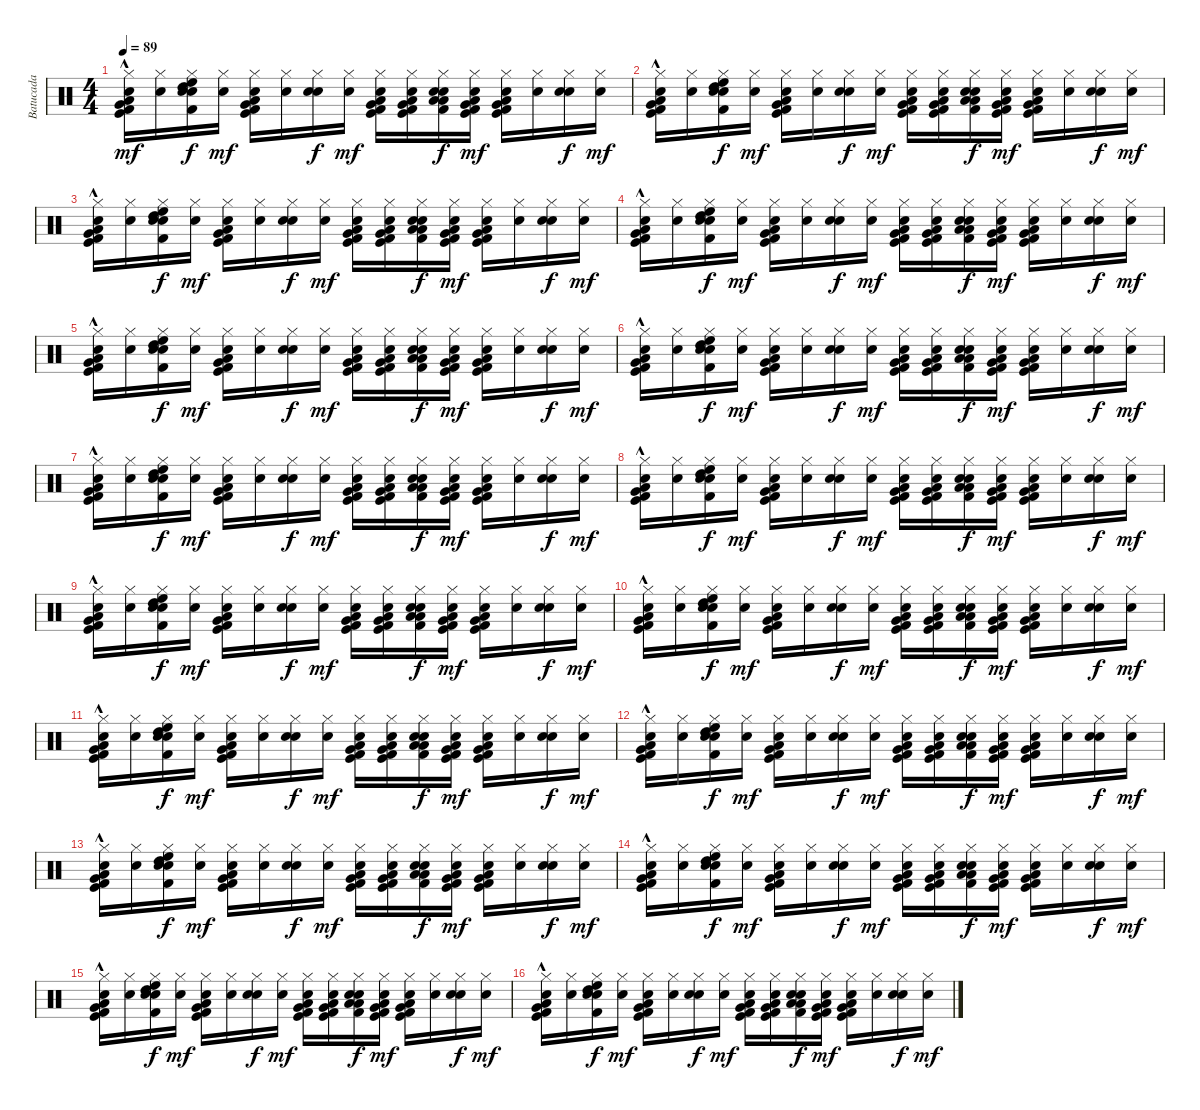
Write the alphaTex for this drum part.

\track ("Batucada" "Batucada") {instrument percussion}
\staff {score}
\articulation defaults
\ts (4 4)
\tempo 89
\clef neutral
\ks c
("Hi-Hat (closed)" "Very Low Tom (hit)" "Low Floor Tom (hit)" "Electric Snare (hit)" "Kick (hit) 2" "Kick (hit)"{hac}).16{dy mf} ("Hi-Hat (closed)" "Electric Snare (hit)").16 ("Hi-Hat (closed)" "High Floor Tom (hit)" "High Tom (hit)" "Electric Snare (hit)" "Snare (hit) 2" "Kick (hit) 2").16{dy f} ("Hi-Hat (closed)" "Electric Snare (hit)").16{dy mf} ("Hi-Hat (closed)" "Very Low Tom (hit)" "Low Floor Tom (hit)" "Electric Snare (hit)" "Kick (hit) 2" "Kick (hit)").16 ("Hi-Hat (closed)" "Electric Snare (hit)").16 ("Hi-Hat (closed)" "Electric Snare (hit)" "Snare (hit) 2").16{dy f} ("Hi-Hat (closed)" "Electric Snare (hit)").16{dy mf} ("Hi-Hat (closed)" "Very Low Tom (hit)" "Low Floor Tom (hit)" "Electric Snare (hit)" "Kick (hit) 2" "Kick (hit)").16 ("Hi-Hat (closed)" "Low Floor Tom (hit)" "Very Low Tom (hit)" "Electric Snare (hit)" "Kick (hit) 2" "Kick (hit)").16 ("Low Tom (hit)" "Low Floor Tom (hit)" "Hi-Hat (closed)" "Electric Snare (hit)" "Snare (hit) 2" "Kick (hit) 2").16{dy f} ("Hi-Hat (closed)" "Very Low Tom (hit)" "Low Floor Tom (hit)" "Electric Snare (hit)" "Kick (hit) 2" "Kick (hit)").16{dy mf} ("Hi-Hat (closed)" "Very Low Tom (hit)" "Low Floor Tom (hit)" "Electric Snare (hit)" "Kick (hit) 2" "Kick (hit)").16 ("Hi-Hat (closed)" "Electric Snare (hit)").16 ("Hi-Hat (closed)" "Electric Snare (hit)" "Snare (hit) 2").16{dy f} ("Hi-Hat (closed)" "Electric Snare (hit)").16{dy mf} |
("Hi-Hat (closed)" "Very Low Tom (hit)" "Low Floor Tom (hit)" "Electric Snare (hit)" "Kick (hit) 2" "Kick (hit)"{hac}).16 ("Hi-Hat (closed)" "Electric Snare (hit)").16 ("Hi-Hat (closed)" "High Floor Tom (hit)" "High Tom (hit)" "Electric Snare (hit)" "Snare (hit) 2" "Kick (hit) 2").16{dy f} ("Hi-Hat (closed)" "Electric Snare (hit)").16{dy mf} ("Hi-Hat (closed)" "Very Low Tom (hit)" "Low Floor Tom (hit)" "Electric Snare (hit)" "Kick (hit) 2" "Kick (hit)").16 ("Hi-Hat (closed)" "Electric Snare (hit)").16 ("Hi-Hat (closed)" "Electric Snare (hit)" "Snare (hit) 2").16{dy f} ("Hi-Hat (closed)" "Electric Snare (hit)").16{dy mf} ("Hi-Hat (closed)" "Very Low Tom (hit)" "Low Floor Tom (hit)" "Electric Snare (hit)" "Kick (hit) 2" "Kick (hit)").16 ("Hi-Hat (closed)" "Low Floor Tom (hit)" "Very Low Tom (hit)" "Electric Snare (hit)" "Kick (hit) 2" "Kick (hit)").16 ("Low Tom (hit)" "Low Floor Tom (hit)" "Hi-Hat (closed)" "Electric Snare (hit)" "Snare (hit) 2" "Kick (hit) 2").16{dy f} ("Hi-Hat (closed)" "Very Low Tom (hit)" "Low Floor Tom (hit)" "Electric Snare (hit)" "Kick (hit) 2" "Kick (hit)").16{dy mf} ("Hi-Hat (closed)" "Very Low Tom (hit)" "Low Floor Tom (hit)" "Electric Snare (hit)" "Kick (hit) 2" "Kick (hit)").16 ("Hi-Hat (closed)" "Electric Snare (hit)").16 ("Hi-Hat (closed)" "Electric Snare (hit)" "Snare (hit) 2").16{dy f} ("Hi-Hat (closed)" "Electric Snare (hit)").16{dy mf} |
("Hi-Hat (closed)" "Very Low Tom (hit)" "Low Floor Tom (hit)" "Electric Snare (hit)" "Kick (hit) 2" "Kick (hit)"{hac}).16 ("Hi-Hat (closed)" "Electric Snare (hit)").16 ("Hi-Hat (closed)" "High Floor Tom (hit)" "High Tom (hit)" "Electric Snare (hit)" "Snare (hit) 2" "Kick (hit) 2").16{dy f} ("Hi-Hat (closed)" "Electric Snare (hit)").16{dy mf} ("Hi-Hat (closed)" "Very Low Tom (hit)" "Low Floor Tom (hit)" "Electric Snare (hit)" "Kick (hit) 2" "Kick (hit)").16 ("Hi-Hat (closed)" "Electric Snare (hit)").16 ("Hi-Hat (closed)" "Electric Snare (hit)" "Snare (hit) 2").16{dy f} ("Hi-Hat (closed)" "Electric Snare (hit)").16{dy mf} ("Hi-Hat (closed)" "Very Low Tom (hit)" "Low Floor Tom (hit)" "Electric Snare (hit)" "Kick (hit) 2" "Kick (hit)").16 ("Hi-Hat (closed)" "Low Floor Tom (hit)" "Very Low Tom (hit)" "Electric Snare (hit)" "Kick (hit) 2" "Kick (hit)").16 ("Low Tom (hit)" "Low Floor Tom (hit)" "Hi-Hat (closed)" "Electric Snare (hit)" "Snare (hit) 2" "Kick (hit) 2").16{dy f} ("Hi-Hat (closed)" "Very Low Tom (hit)" "Low Floor Tom (hit)" "Electric Snare (hit)" "Kick (hit) 2" "Kick (hit)").16{dy mf} ("Hi-Hat (closed)" "Very Low Tom (hit)" "Low Floor Tom (hit)" "Electric Snare (hit)" "Kick (hit) 2" "Kick (hit)").16 ("Hi-Hat (closed)" "Electric Snare (hit)").16 ("Hi-Hat (closed)" "Electric Snare (hit)" "Snare (hit) 2").16{dy f} ("Hi-Hat (closed)" "Electric Snare (hit)").16{dy mf} |
("Hi-Hat (closed)" "Very Low Tom (hit)" "Low Floor Tom (hit)" "Electric Snare (hit)" "Kick (hit) 2" "Kick (hit)"{hac}).16 ("Hi-Hat (closed)" "Electric Snare (hit)").16 ("Hi-Hat (closed)" "High Floor Tom (hit)" "High Tom (hit)" "Electric Snare (hit)" "Snare (hit) 2" "Kick (hit) 2").16{dy f} ("Hi-Hat (closed)" "Electric Snare (hit)").16{dy mf} ("Hi-Hat (closed)" "Very Low Tom (hit)" "Low Floor Tom (hit)" "Electric Snare (hit)" "Kick (hit) 2" "Kick (hit)").16 ("Hi-Hat (closed)" "Electric Snare (hit)").16 ("Hi-Hat (closed)" "Electric Snare (hit)" "Snare (hit) 2").16{dy f} ("Hi-Hat (closed)" "Electric Snare (hit)").16{dy mf} ("Hi-Hat (closed)" "Very Low Tom (hit)" "Low Floor Tom (hit)" "Electric Snare (hit)" "Kick (hit) 2" "Kick (hit)").16 ("Hi-Hat (closed)" "Low Floor Tom (hit)" "Very Low Tom (hit)" "Electric Snare (hit)" "Kick (hit) 2" "Kick (hit)").16 ("Low Tom (hit)" "Low Floor Tom (hit)" "Hi-Hat (closed)" "Electric Snare (hit)" "Snare (hit) 2" "Kick (hit) 2").16{dy f} ("Hi-Hat (closed)" "Very Low Tom (hit)" "Low Floor Tom (hit)" "Electric Snare (hit)" "Kick (hit) 2" "Kick (hit)").16{dy mf} ("Hi-Hat (closed)" "Very Low Tom (hit)" "Low Floor Tom (hit)" "Electric Snare (hit)" "Kick (hit) 2" "Kick (hit)").16 ("Hi-Hat (closed)" "Electric Snare (hit)").16 ("Hi-Hat (closed)" "Electric Snare (hit)" "Snare (hit) 2").16{dy f} ("Hi-Hat (closed)" "Electric Snare (hit)").16{dy mf} |
("Hi-Hat (closed)" "Very Low Tom (hit)" "Low Floor Tom (hit)" "Electric Snare (hit)" "Kick (hit) 2" "Kick (hit)"{hac}).16 ("Hi-Hat (closed)" "Electric Snare (hit)").16 ("Hi-Hat (closed)" "High Floor Tom (hit)" "High Tom (hit)" "Electric Snare (hit)" "Snare (hit) 2" "Kick (hit) 2").16{dy f} ("Hi-Hat (closed)" "Electric Snare (hit)").16{dy mf} ("Hi-Hat (closed)" "Very Low Tom (hit)" "Low Floor Tom (hit)" "Electric Snare (hit)" "Kick (hit) 2" "Kick (hit)").16 ("Hi-Hat (closed)" "Electric Snare (hit)").16 ("Hi-Hat (closed)" "Electric Snare (hit)" "Snare (hit) 2").16{dy f} ("Hi-Hat (closed)" "Electric Snare (hit)").16{dy mf} ("Hi-Hat (closed)" "Very Low Tom (hit)" "Low Floor Tom (hit)" "Electric Snare (hit)" "Kick (hit) 2" "Kick (hit)").16 ("Hi-Hat (closed)" "Low Floor Tom (hit)" "Very Low Tom (hit)" "Electric Snare (hit)" "Kick (hit) 2" "Kick (hit)").16 ("Low Tom (hit)" "Low Floor Tom (hit)" "Hi-Hat (closed)" "Electric Snare (hit)" "Snare (hit) 2" "Kick (hit) 2").16{dy f} ("Hi-Hat (closed)" "Very Low Tom (hit)" "Low Floor Tom (hit)" "Electric Snare (hit)" "Kick (hit) 2" "Kick (hit)").16{dy mf} ("Hi-Hat (closed)" "Very Low Tom (hit)" "Low Floor Tom (hit)" "Electric Snare (hit)" "Kick (hit) 2" "Kick (hit)").16 ("Hi-Hat (closed)" "Electric Snare (hit)").16 ("Hi-Hat (closed)" "Electric Snare (hit)" "Snare (hit) 2").16{dy f} ("Hi-Hat (closed)" "Electric Snare (hit)").16{dy mf} |
("Hi-Hat (closed)" "Very Low Tom (hit)" "Low Floor Tom (hit)" "Electric Snare (hit)" "Kick (hit) 2" "Kick (hit)"{hac}).16 ("Hi-Hat (closed)" "Electric Snare (hit)").16 ("Hi-Hat (closed)" "High Floor Tom (hit)" "High Tom (hit)" "Electric Snare (hit)" "Snare (hit) 2" "Kick (hit) 2").16{dy f} ("Hi-Hat (closed)" "Electric Snare (hit)").16{dy mf} ("Hi-Hat (closed)" "Very Low Tom (hit)" "Low Floor Tom (hit)" "Electric Snare (hit)" "Kick (hit) 2" "Kick (hit)").16 ("Hi-Hat (closed)" "Electric Snare (hit)").16 ("Hi-Hat (closed)" "Electric Snare (hit)" "Snare (hit) 2").16{dy f} ("Hi-Hat (closed)" "Electric Snare (hit)").16{dy mf} ("Hi-Hat (closed)" "Very Low Tom (hit)" "Low Floor Tom (hit)" "Electric Snare (hit)" "Kick (hit) 2" "Kick (hit)").16 ("Hi-Hat (closed)" "Low Floor Tom (hit)" "Very Low Tom (hit)" "Electric Snare (hit)" "Kick (hit) 2" "Kick (hit)").16 ("Low Tom (hit)" "Low Floor Tom (hit)" "Hi-Hat (closed)" "Electric Snare (hit)" "Snare (hit) 2" "Kick (hit) 2").16{dy f} ("Hi-Hat (closed)" "Very Low Tom (hit)" "Low Floor Tom (hit)" "Electric Snare (hit)" "Kick (hit) 2" "Kick (hit)").16{dy mf} ("Hi-Hat (closed)" "Very Low Tom (hit)" "Low Floor Tom (hit)" "Electric Snare (hit)" "Kick (hit) 2" "Kick (hit)").16 ("Hi-Hat (closed)" "Electric Snare (hit)").16 ("Hi-Hat (closed)" "Electric Snare (hit)" "Snare (hit) 2").16{dy f} ("Hi-Hat (closed)" "Electric Snare (hit)").16{dy mf} |
("Hi-Hat (closed)" "Very Low Tom (hit)" "Low Floor Tom (hit)" "Electric Snare (hit)" "Kick (hit) 2" "Kick (hit)"{hac}).16 ("Hi-Hat (closed)" "Electric Snare (hit)").16 ("Hi-Hat (closed)" "High Floor Tom (hit)" "High Tom (hit)" "Electric Snare (hit)" "Snare (hit) 2" "Kick (hit) 2").16{dy f} ("Hi-Hat (closed)" "Electric Snare (hit)").16{dy mf} ("Hi-Hat (closed)" "Very Low Tom (hit)" "Low Floor Tom (hit)" "Electric Snare (hit)" "Kick (hit) 2" "Kick (hit)").16 ("Hi-Hat (closed)" "Electric Snare (hit)").16 ("Hi-Hat (closed)" "Electric Snare (hit)" "Snare (hit) 2").16{dy f} ("Hi-Hat (closed)" "Electric Snare (hit)").16{dy mf} ("Hi-Hat (closed)" "Very Low Tom (hit)" "Low Floor Tom (hit)" "Electric Snare (hit)" "Kick (hit) 2" "Kick (hit)").16 ("Hi-Hat (closed)" "Low Floor Tom (hit)" "Very Low Tom (hit)" "Electric Snare (hit)" "Kick (hit) 2" "Kick (hit)").16 ("Low Tom (hit)" "Low Floor Tom (hit)" "Hi-Hat (closed)" "Electric Snare (hit)" "Snare (hit) 2" "Kick (hit) 2").16{dy f} ("Hi-Hat (closed)" "Very Low Tom (hit)" "Low Floor Tom (hit)" "Electric Snare (hit)" "Kick (hit) 2" "Kick (hit)").16{dy mf} ("Hi-Hat (closed)" "Very Low Tom (hit)" "Low Floor Tom (hit)" "Electric Snare (hit)" "Kick (hit) 2" "Kick (hit)").16 ("Hi-Hat (closed)" "Electric Snare (hit)").16 ("Hi-Hat (closed)" "Electric Snare (hit)" "Snare (hit) 2").16{dy f} ("Hi-Hat (closed)" "Electric Snare (hit)").16{dy mf} |
("Hi-Hat (closed)" "Very Low Tom (hit)" "Low Floor Tom (hit)" "Electric Snare (hit)" "Kick (hit) 2" "Kick (hit)"{hac}).16 ("Hi-Hat (closed)" "Electric Snare (hit)").16 ("Hi-Hat (closed)" "High Floor Tom (hit)" "High Tom (hit)" "Electric Snare (hit)" "Snare (hit) 2" "Kick (hit) 2").16{dy f} ("Hi-Hat (closed)" "Electric Snare (hit)").16{dy mf} ("Hi-Hat (closed)" "Very Low Tom (hit)" "Low Floor Tom (hit)" "Electric Snare (hit)" "Kick (hit) 2" "Kick (hit)").16 ("Hi-Hat (closed)" "Electric Snare (hit)").16 ("Hi-Hat (closed)" "Electric Snare (hit)" "Snare (hit) 2").16{dy f} ("Hi-Hat (closed)" "Electric Snare (hit)").16{dy mf} ("Hi-Hat (closed)" "Very Low Tom (hit)" "Low Floor Tom (hit)" "Electric Snare (hit)" "Kick (hit) 2" "Kick (hit)").16 ("Hi-Hat (closed)" "Low Floor Tom (hit)" "Very Low Tom (hit)" "Electric Snare (hit)" "Kick (hit) 2" "Kick (hit)").16 ("Low Tom (hit)" "Low Floor Tom (hit)" "Hi-Hat (closed)" "Electric Snare (hit)" "Snare (hit) 2" "Kick (hit) 2").16{dy f} ("Hi-Hat (closed)" "Very Low Tom (hit)" "Low Floor Tom (hit)" "Electric Snare (hit)" "Kick (hit) 2" "Kick (hit)").16{dy mf} ("Hi-Hat (closed)" "Very Low Tom (hit)" "Low Floor Tom (hit)" "Electric Snare (hit)" "Kick (hit) 2" "Kick (hit)").16 ("Hi-Hat (closed)" "Electric Snare (hit)").16 ("Hi-Hat (closed)" "Electric Snare (hit)" "Snare (hit) 2").16{dy f} ("Hi-Hat (closed)" "Electric Snare (hit)").16{dy mf} |
("Hi-Hat (closed)" "Very Low Tom (hit)" "Low Floor Tom (hit)" "Electric Snare (hit)" "Kick (hit) 2" "Kick (hit)"{hac}).16 ("Hi-Hat (closed)" "Electric Snare (hit)").16 ("Hi-Hat (closed)" "High Floor Tom (hit)" "High Tom (hit)" "Electric Snare (hit)" "Snare (hit) 2" "Kick (hit) 2").16{dy f} ("Hi-Hat (closed)" "Electric Snare (hit)").16{dy mf} ("Hi-Hat (closed)" "Very Low Tom (hit)" "Low Floor Tom (hit)" "Electric Snare (hit)" "Kick (hit) 2" "Kick (hit)").16 ("Hi-Hat (closed)" "Electric Snare (hit)").16 ("Hi-Hat (closed)" "Electric Snare (hit)" "Snare (hit) 2").16{dy f} ("Hi-Hat (closed)" "Electric Snare (hit)").16{dy mf} ("Hi-Hat (closed)" "Very Low Tom (hit)" "Low Floor Tom (hit)" "Electric Snare (hit)" "Kick (hit) 2" "Kick (hit)").16 ("Hi-Hat (closed)" "Low Floor Tom (hit)" "Very Low Tom (hit)" "Electric Snare (hit)" "Kick (hit) 2" "Kick (hit)").16 ("Low Tom (hit)" "Low Floor Tom (hit)" "Hi-Hat (closed)" "Electric Snare (hit)" "Snare (hit) 2" "Kick (hit) 2").16{dy f} ("Hi-Hat (closed)" "Very Low Tom (hit)" "Low Floor Tom (hit)" "Electric Snare (hit)" "Kick (hit) 2" "Kick (hit)").16{dy mf} ("Hi-Hat (closed)" "Very Low Tom (hit)" "Low Floor Tom (hit)" "Electric Snare (hit)" "Kick (hit) 2" "Kick (hit)").16 ("Hi-Hat (closed)" "Electric Snare (hit)").16 ("Hi-Hat (closed)" "Electric Snare (hit)" "Snare (hit) 2").16{dy f} ("Hi-Hat (closed)" "Electric Snare (hit)").16{dy mf} |
("Hi-Hat (closed)" "Very Low Tom (hit)" "Low Floor Tom (hit)" "Electric Snare (hit)" "Kick (hit) 2" "Kick (hit)"{hac}).16 ("Hi-Hat (closed)" "Electric Snare (hit)").16 ("Hi-Hat (closed)" "High Floor Tom (hit)" "High Tom (hit)" "Electric Snare (hit)" "Snare (hit) 2" "Kick (hit) 2").16{dy f} ("Hi-Hat (closed)" "Electric Snare (hit)").16{dy mf} ("Hi-Hat (closed)" "Very Low Tom (hit)" "Low Floor Tom (hit)" "Electric Snare (hit)" "Kick (hit) 2" "Kick (hit)").16 ("Hi-Hat (closed)" "Electric Snare (hit)").16 ("Hi-Hat (closed)" "Electric Snare (hit)" "Snare (hit) 2").16{dy f} ("Hi-Hat (closed)" "Electric Snare (hit)").16{dy mf} ("Hi-Hat (closed)" "Very Low Tom (hit)" "Low Floor Tom (hit)" "Electric Snare (hit)" "Kick (hit) 2" "Kick (hit)").16 ("Hi-Hat (closed)" "Low Floor Tom (hit)" "Very Low Tom (hit)" "Electric Snare (hit)" "Kick (hit) 2" "Kick (hit)").16 ("Low Tom (hit)" "Low Floor Tom (hit)" "Hi-Hat (closed)" "Electric Snare (hit)" "Snare (hit) 2" "Kick (hit) 2").16{dy f} ("Hi-Hat (closed)" "Very Low Tom (hit)" "Low Floor Tom (hit)" "Electric Snare (hit)" "Kick (hit) 2" "Kick (hit)").16{dy mf} ("Hi-Hat (closed)" "Very Low Tom (hit)" "Low Floor Tom (hit)" "Electric Snare (hit)" "Kick (hit) 2" "Kick (hit)").16 ("Hi-Hat (closed)" "Electric Snare (hit)").16 ("Hi-Hat (closed)" "Electric Snare (hit)" "Snare (hit) 2").16{dy f} ("Hi-Hat (closed)" "Electric Snare (hit)").16{dy mf} |
("Hi-Hat (closed)" "Very Low Tom (hit)" "Low Floor Tom (hit)" "Electric Snare (hit)" "Kick (hit) 2" "Kick (hit)"{hac}).16 ("Hi-Hat (closed)" "Electric Snare (hit)").16 ("Hi-Hat (closed)" "High Floor Tom (hit)" "High Tom (hit)" "Electric Snare (hit)" "Snare (hit) 2" "Kick (hit) 2").16{dy f} ("Hi-Hat (closed)" "Electric Snare (hit)").16{dy mf} ("Hi-Hat (closed)" "Very Low Tom (hit)" "Low Floor Tom (hit)" "Electric Snare (hit)" "Kick (hit) 2" "Kick (hit)").16 ("Hi-Hat (closed)" "Electric Snare (hit)").16 ("Hi-Hat (closed)" "Electric Snare (hit)" "Snare (hit) 2").16{dy f} ("Hi-Hat (closed)" "Electric Snare (hit)").16{dy mf} ("Hi-Hat (closed)" "Very Low Tom (hit)" "Low Floor Tom (hit)" "Electric Snare (hit)" "Kick (hit) 2" "Kick (hit)").16 ("Hi-Hat (closed)" "Low Floor Tom (hit)" "Very Low Tom (hit)" "Electric Snare (hit)" "Kick (hit) 2" "Kick (hit)").16 ("Low Tom (hit)" "Low Floor Tom (hit)" "Hi-Hat (closed)" "Electric Snare (hit)" "Snare (hit) 2" "Kick (hit) 2").16{dy f} ("Hi-Hat (closed)" "Very Low Tom (hit)" "Low Floor Tom (hit)" "Electric Snare (hit)" "Kick (hit) 2" "Kick (hit)").16{dy mf} ("Hi-Hat (closed)" "Very Low Tom (hit)" "Low Floor Tom (hit)" "Electric Snare (hit)" "Kick (hit) 2" "Kick (hit)").16 ("Hi-Hat (closed)" "Electric Snare (hit)").16 ("Hi-Hat (closed)" "Electric Snare (hit)" "Snare (hit) 2").16{dy f} ("Hi-Hat (closed)" "Electric Snare (hit)").16{dy mf} |
("Hi-Hat (closed)" "Very Low Tom (hit)" "Low Floor Tom (hit)" "Electric Snare (hit)" "Kick (hit) 2" "Kick (hit)"{hac}).16 ("Hi-Hat (closed)" "Electric Snare (hit)").16 ("Hi-Hat (closed)" "High Floor Tom (hit)" "High Tom (hit)" "Electric Snare (hit)" "Snare (hit) 2" "Kick (hit) 2").16{dy f} ("Hi-Hat (closed)" "Electric Snare (hit)").16{dy mf} ("Hi-Hat (closed)" "Very Low Tom (hit)" "Low Floor Tom (hit)" "Electric Snare (hit)" "Kick (hit) 2" "Kick (hit)").16 ("Hi-Hat (closed)" "Electric Snare (hit)").16 ("Hi-Hat (closed)" "Electric Snare (hit)" "Snare (hit) 2").16{dy f} ("Hi-Hat (closed)" "Electric Snare (hit)").16{dy mf} ("Hi-Hat (closed)" "Very Low Tom (hit)" "Low Floor Tom (hit)" "Electric Snare (hit)" "Kick (hit) 2" "Kick (hit)").16 ("Hi-Hat (closed)" "Low Floor Tom (hit)" "Very Low Tom (hit)" "Electric Snare (hit)" "Kick (hit) 2" "Kick (hit)").16 ("Low Tom (hit)" "Low Floor Tom (hit)" "Hi-Hat (closed)" "Electric Snare (hit)" "Snare (hit) 2" "Kick (hit) 2").16{dy f} ("Hi-Hat (closed)" "Very Low Tom (hit)" "Low Floor Tom (hit)" "Electric Snare (hit)" "Kick (hit) 2" "Kick (hit)").16{dy mf} ("Hi-Hat (closed)" "Very Low Tom (hit)" "Low Floor Tom (hit)" "Electric Snare (hit)" "Kick (hit) 2" "Kick (hit)").16 ("Hi-Hat (closed)" "Electric Snare (hit)").16 ("Hi-Hat (closed)" "Electric Snare (hit)" "Snare (hit) 2").16{dy f} ("Hi-Hat (closed)" "Electric Snare (hit)").16{dy mf} |
("Hi-Hat (closed)" "Very Low Tom (hit)" "Low Floor Tom (hit)" "Electric Snare (hit)" "Kick (hit) 2" "Kick (hit)"{hac}).16 ("Hi-Hat (closed)" "Electric Snare (hit)").16 ("Hi-Hat (closed)" "High Floor Tom (hit)" "High Tom (hit)" "Electric Snare (hit)" "Snare (hit) 2" "Kick (hit) 2").16{dy f} ("Hi-Hat (closed)" "Electric Snare (hit)").16{dy mf} ("Hi-Hat (closed)" "Very Low Tom (hit)" "Low Floor Tom (hit)" "Electric Snare (hit)" "Kick (hit) 2" "Kick (hit)").16 ("Hi-Hat (closed)" "Electric Snare (hit)").16 ("Hi-Hat (closed)" "Electric Snare (hit)" "Snare (hit) 2").16{dy f} ("Hi-Hat (closed)" "Electric Snare (hit)").16{dy mf} ("Hi-Hat (closed)" "Very Low Tom (hit)" "Low Floor Tom (hit)" "Electric Snare (hit)" "Kick (hit) 2" "Kick (hit)").16 ("Hi-Hat (closed)" "Low Floor Tom (hit)" "Very Low Tom (hit)" "Electric Snare (hit)" "Kick (hit) 2" "Kick (hit)").16 ("Low Tom (hit)" "Low Floor Tom (hit)" "Hi-Hat (closed)" "Electric Snare (hit)" "Snare (hit) 2" "Kick (hit) 2").16{dy f} ("Hi-Hat (closed)" "Very Low Tom (hit)" "Low Floor Tom (hit)" "Electric Snare (hit)" "Kick (hit) 2" "Kick (hit)").16{dy mf} ("Hi-Hat (closed)" "Very Low Tom (hit)" "Low Floor Tom (hit)" "Electric Snare (hit)" "Kick (hit) 2" "Kick (hit)").16 ("Hi-Hat (closed)" "Electric Snare (hit)").16 ("Hi-Hat (closed)" "Electric Snare (hit)" "Snare (hit) 2").16{dy f} ("Hi-Hat (closed)" "Electric Snare (hit)").16{dy mf} |
("Hi-Hat (closed)" "Very Low Tom (hit)" "Low Floor Tom (hit)" "Electric Snare (hit)" "Kick (hit) 2" "Kick (hit)"{hac}).16 ("Hi-Hat (closed)" "Electric Snare (hit)").16 ("Hi-Hat (closed)" "High Floor Tom (hit)" "High Tom (hit)" "Electric Snare (hit)" "Snare (hit) 2" "Kick (hit) 2").16{dy f} ("Hi-Hat (closed)" "Electric Snare (hit)").16{dy mf} ("Hi-Hat (closed)" "Very Low Tom (hit)" "Low Floor Tom (hit)" "Electric Snare (hit)" "Kick (hit) 2" "Kick (hit)").16 ("Hi-Hat (closed)" "Electric Snare (hit)").16 ("Hi-Hat (closed)" "Electric Snare (hit)" "Snare (hit) 2").16{dy f} ("Hi-Hat (closed)" "Electric Snare (hit)").16{dy mf} ("Hi-Hat (closed)" "Very Low Tom (hit)" "Low Floor Tom (hit)" "Electric Snare (hit)" "Kick (hit) 2" "Kick (hit)").16 ("Hi-Hat (closed)" "Low Floor Tom (hit)" "Very Low Tom (hit)" "Electric Snare (hit)" "Kick (hit) 2" "Kick (hit)").16 ("Low Tom (hit)" "Low Floor Tom (hit)" "Hi-Hat (closed)" "Electric Snare (hit)" "Snare (hit) 2" "Kick (hit) 2").16{dy f} ("Hi-Hat (closed)" "Very Low Tom (hit)" "Low Floor Tom (hit)" "Electric Snare (hit)" "Kick (hit) 2" "Kick (hit)").16{dy mf} ("Hi-Hat (closed)" "Very Low Tom (hit)" "Low Floor Tom (hit)" "Electric Snare (hit)" "Kick (hit) 2" "Kick (hit)").16 ("Hi-Hat (closed)" "Electric Snare (hit)").16 ("Hi-Hat (closed)" "Electric Snare (hit)" "Snare (hit) 2").16{dy f} ("Hi-Hat (closed)" "Electric Snare (hit)").16{dy mf} |
("Hi-Hat (closed)" "Very Low Tom (hit)" "Low Floor Tom (hit)" "Electric Snare (hit)" "Kick (hit) 2" "Kick (hit)"{hac}).16 ("Hi-Hat (closed)" "Electric Snare (hit)").16 ("Hi-Hat (closed)" "High Floor Tom (hit)" "High Tom (hit)" "Electric Snare (hit)" "Snare (hit) 2" "Kick (hit) 2").16{dy f} ("Hi-Hat (closed)" "Electric Snare (hit)").16{dy mf} ("Hi-Hat (closed)" "Very Low Tom (hit)" "Low Floor Tom (hit)" "Electric Snare (hit)" "Kick (hit) 2" "Kick (hit)").16 ("Hi-Hat (closed)" "Electric Snare (hit)").16 ("Hi-Hat (closed)" "Electric Snare (hit)" "Snare (hit) 2").16{dy f} ("Hi-Hat (closed)" "Electric Snare (hit)").16{dy mf} ("Hi-Hat (closed)" "Very Low Tom (hit)" "Low Floor Tom (hit)" "Electric Snare (hit)" "Kick (hit) 2" "Kick (hit)").16 ("Hi-Hat (closed)" "Low Floor Tom (hit)" "Very Low Tom (hit)" "Electric Snare (hit)" "Kick (hit) 2" "Kick (hit)").16 ("Low Tom (hit)" "Low Floor Tom (hit)" "Hi-Hat (closed)" "Electric Snare (hit)" "Snare (hit) 2" "Kick (hit) 2").16{dy f} ("Hi-Hat (closed)" "Very Low Tom (hit)" "Low Floor Tom (hit)" "Electric Snare (hit)" "Kick (hit) 2" "Kick (hit)").16{dy mf} ("Hi-Hat (closed)" "Very Low Tom (hit)" "Low Floor Tom (hit)" "Electric Snare (hit)" "Kick (hit) 2" "Kick (hit)").16 ("Hi-Hat (closed)" "Electric Snare (hit)").16 ("Hi-Hat (closed)" "Electric Snare (hit)" "Snare (hit) 2").16{dy f} ("Hi-Hat (closed)" "Electric Snare (hit)").16{dy mf} |
("Hi-Hat (closed)" "Very Low Tom (hit)" "Low Floor Tom (hit)" "Electric Snare (hit)" "Kick (hit) 2" "Kick (hit)"{hac}).16 ("Hi-Hat (closed)" "Electric Snare (hit)").16 ("Hi-Hat (closed)" "High Floor Tom (hit)" "High Tom (hit)" "Electric Snare (hit)" "Snare (hit) 2" "Kick (hit) 2").16{dy f} ("Hi-Hat (closed)" "Electric Snare (hit)").16{dy mf} ("Hi-Hat (closed)" "Very Low Tom (hit)" "Low Floor Tom (hit)" "Electric Snare (hit)" "Kick (hit) 2" "Kick (hit)").16 ("Hi-Hat (closed)" "Electric Snare (hit)").16 ("Hi-Hat (closed)" "Electric Snare (hit)" "Snare (hit) 2").16{dy f} ("Hi-Hat (closed)" "Electric Snare (hit)").16{dy mf} ("Hi-Hat (closed)" "Very Low Tom (hit)" "Low Floor Tom (hit)" "Electric Snare (hit)" "Kick (hit) 2" "Kick (hit)").16 ("Hi-Hat (closed)" "Low Floor Tom (hit)" "Very Low Tom (hit)" "Electric Snare (hit)" "Kick (hit) 2" "Kick (hit)").16 ("Low Tom (hit)" "Low Floor Tom (hit)" "Hi-Hat (closed)" "Electric Snare (hit)" "Snare (hit) 2" "Kick (hit) 2").16{dy f} ("Hi-Hat (closed)" "Very Low Tom (hit)" "Low Floor Tom (hit)" "Electric Snare (hit)" "Kick (hit) 2" "Kick (hit)").16{dy mf} ("Hi-Hat (closed)" "Very Low Tom (hit)" "Low Floor Tom (hit)" "Electric Snare (hit)" "Kick (hit) 2" "Kick (hit)").16 ("Hi-Hat (closed)" "Electric Snare (hit)").16 ("Hi-Hat (closed)" "Electric Snare (hit)" "Snare (hit) 2").16{dy f} ("Hi-Hat (closed)" "Electric Snare (hit)").16{dy mf}
